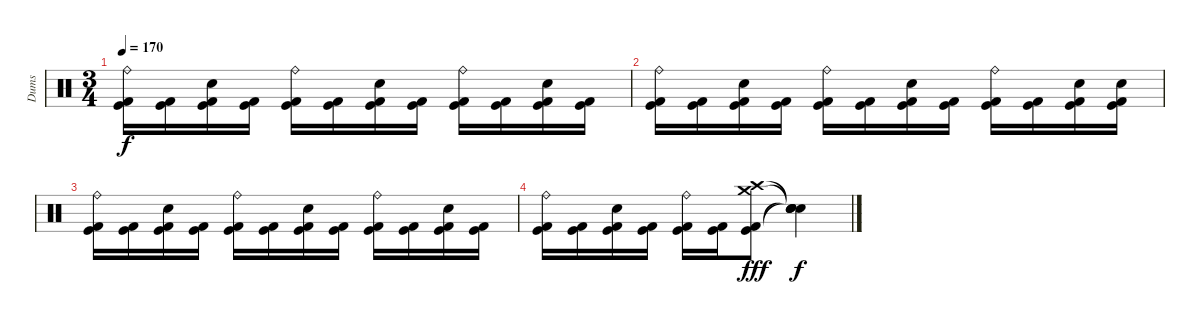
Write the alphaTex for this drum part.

\track ("Dums" "Dums") {instrument percussion}
\staff {score}
\articulation defaults
\ts (3 4)
\tempo 170
\clef neutral
\ks c
("Ride (bell)" "Kick (hit)" "Kick (hit) 2").16{dy f} ("Kick (hit)" "Kick (hit) 2").16 ("Electric Snare (hit)" "Kick (hit)" "Kick (hit) 2").16 ("Kick (hit)" "Kick (hit) 2").16 ("Ride (bell)" "Kick (hit)" "Kick (hit) 2").16 ("Kick (hit)" "Kick (hit) 2").16 ("Electric Snare (hit)" "Kick (hit)" "Kick (hit) 2").16 ("Kick (hit)" "Kick (hit) 2").16 ("Ride (bell)" "Kick (hit)" "Kick (hit) 2").16 ("Kick (hit)" "Kick (hit) 2").16 ("Electric Snare (hit)" "Kick (hit)" "Kick (hit) 2").16 ("Kick (hit)" "Kick (hit) 2").16 |
("Ride (bell)" "Kick (hit)" "Kick (hit) 2").16 ("Kick (hit)" "Kick (hit) 2").16 ("Electric Snare (hit)" "Kick (hit)" "Kick (hit) 2").16 ("Kick (hit)" "Kick (hit) 2").16 ("Ride (bell)" "Kick (hit)" "Kick (hit) 2").16 ("Kick (hit)" "Kick (hit) 2").16 ("Electric Snare (hit)" "Kick (hit)" "Kick (hit) 2").16 ("Kick (hit)" "Kick (hit) 2").16 ("Ride (bell)" "Kick (hit)" "Kick (hit) 2").16 ("Kick (hit)" "Kick (hit) 2").16 ("Electric Snare (hit)" "Kick (hit)" "Kick (hit) 2").16 ("Electric Snare (hit)" "Kick (hit)" "Kick (hit) 2").16 |
("Ride (bell)" "Kick (hit)" "Kick (hit) 2").16 ("Kick (hit)" "Kick (hit) 2").16 ("Electric Snare (hit)" "Kick (hit)" "Kick (hit) 2").16 ("Kick (hit)" "Kick (hit) 2").16 ("Ride (bell)" "Kick (hit)" "Kick (hit) 2").16 ("Kick (hit)" "Kick (hit) 2").16 ("Electric Snare (hit)" "Kick (hit)" "Kick (hit) 2").16 ("Kick (hit)" "Kick (hit) 2").16 ("Ride (bell)" "Kick (hit)" "Kick (hit) 2").16 ("Kick (hit)" "Kick (hit) 2").16 ("Electric Snare (hit)" "Kick (hit)" "Kick (hit) 2").16 ("Kick (hit)" "Kick (hit) 2").16 |
("Ride (bell)" "Kick (hit)" "Kick (hit) 2").16 ("Kick (hit)" "Kick (hit) 2").16 ("Electric Snare (hit)" "Kick (hit)" "Kick (hit) 2").16 ("Kick (hit)" "Kick (hit) 2").16 ("Ride (bell)" "Kick (hit)" "Kick (hit) 2").16 ("Kick (hit)" "Kick (hit) 2").16 ("Crash high (hit)" "Crash medium (hit)" "Kick (hit)" "Kick (hit) 2").8{dy fff} ("Snare (hit)"{t} "Snare (hit)"{t} "Snare (hit)"{t} "Snare (hit)"{t}).4{dy f}
